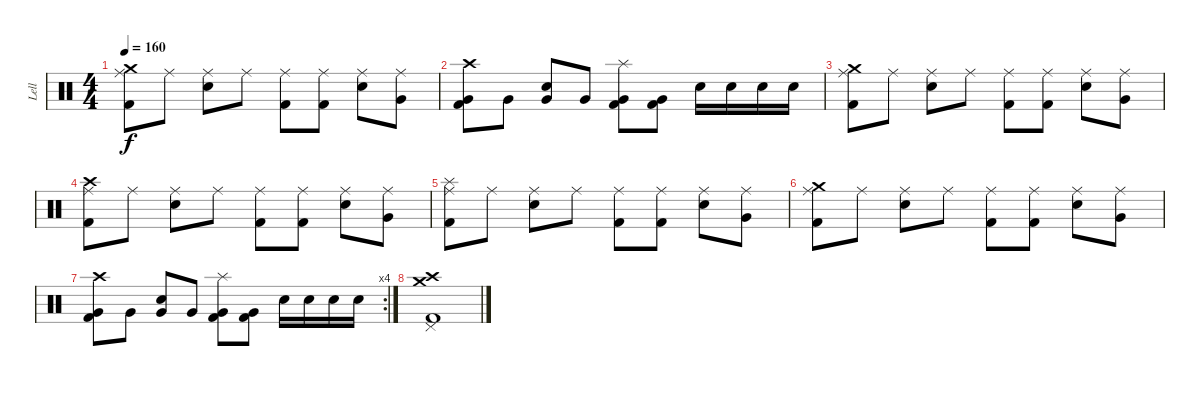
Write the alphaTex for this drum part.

\track ("Lell" "Lell") {instrument percussion}
\staff {score}
\articulation defaults
\ts (4 4)
\tempo 160
\clef neutral
\ks c
("Crash medium (hit)" "Ride (middle)" "Kick (hit) 2").8{dy f} "Ride (middle)".8 ("Ride (middle)" "Snare (hit) 2").8 "Ride (middle)".8 ("Ride (middle)" "Kick (hit) 2").8 ("Ride (middle)" "Kick (hit) 2").8 ("Ride (middle)" "Snare (hit) 2").8 ("Ride (middle)" "Very Low Tom (hit)").8 |
("Crash high (hit)" "Very Low Tom (hit)" "Kick (hit) 2").8 "Very Low Tom (hit)".8 ("Very Low Tom (hit)" "Snare (hit) 2").8 "Very Low Tom (hit)".8 ("Splash (hit)" "Very Low Tom (hit)" "Kick (hit) 2").8 ("Very Low Tom (hit)" "Kick (hit) 2").8 "Snare (hit) 2".16 "Snare (hit) 2".16 "Snare (hit) 2".16 "Snare (hit) 2".16 |
("Crash medium (hit)" "Ride (middle)" "Kick (hit) 2").8 "Ride (middle)".8 ("Ride (middle)" "Snare (hit) 2").8 "Ride (middle)".8 ("Ride (middle)" "Kick (hit) 2").8 ("Ride (middle)" "Kick (hit) 2").8 ("Ride (middle)" "Snare (hit) 2").8 ("Ride (middle)" "Very Low Tom (hit)").8 |
("Crash high (hit)" "Ride (middle)" "Kick (hit) 2").8 "Ride (middle)".8 ("Ride (middle)" "Snare (hit) 2").8 "Ride (middle)".8 ("Ride (middle)" "Kick (hit) 2").8 ("Ride (middle)" "Kick (hit) 2").8 ("Ride (middle)" "Snare (hit) 2").8 ("Ride (middle)" "Very Low Tom (hit)").8 |
("Splash (hit)" "Ride (middle)" "Kick (hit) 2").8 "Ride (middle)".8 ("Ride (middle)" "Snare (hit) 2").8 "Ride (middle)".8 ("Ride (middle)" "Kick (hit) 2").8 ("Ride (middle)" "Kick (hit) 2").8 ("Ride (middle)" "Snare (hit) 2").8 ("Ride (middle)" "Very Low Tom (hit)").8 |
("Crash medium (hit)" "Ride (middle)" "Kick (hit) 2").8 "Ride (middle)".8 ("Ride (middle)" "Snare (hit) 2").8 "Ride (middle)".8 ("Ride (middle)" "Kick (hit) 2").8 ("Ride (middle)" "Kick (hit) 2").8 ("Ride (middle)" "Snare (hit) 2").8 ("Ride (middle)" "Very Low Tom (hit)").8 |
\rc 4
("Crash high (hit)" "Very Low Tom (hit)" "Kick (hit) 2").8 "Very Low Tom (hit)".8 ("Very Low Tom (hit)" "Snare (hit) 2").8 "Very Low Tom (hit)".8 ("Splash (hit)" "Very Low Tom (hit)" "Kick (hit) 2").8 ("Very Low Tom (hit)" "Kick (hit) 2").8 "Snare (hit) 2".16 "Snare (hit) 2".16 "Snare (hit) 2".16 "Snare (hit) 2".16 |
("Crash medium (hit)" "Pedal Hi-Hat (hit)" "Crash high (hit)" "Kick (hit) 2").1
